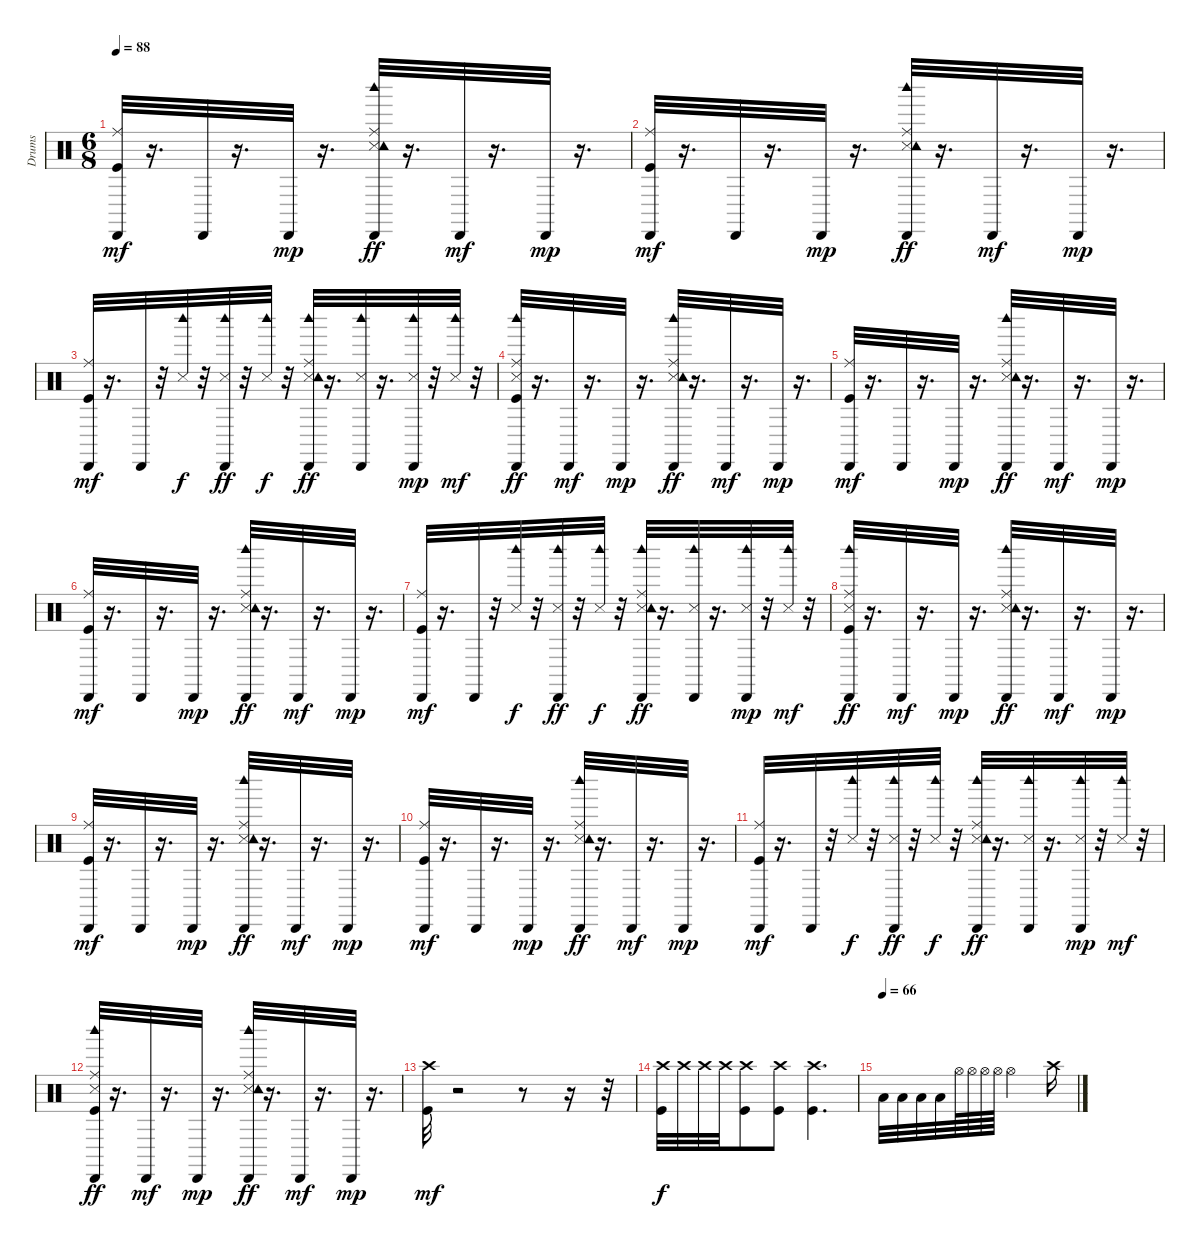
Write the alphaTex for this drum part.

\track ("Drums               " "Drums     ") {instrument percussion}
\staff {score}
\articulation defaults
\ts (6 8)
\tempo 88
\clef neutral
\ks c
("Kick (hit)" "Ride (middle)" "Cabasa (hit)").32{dy mf} r.16{d} "Cabasa (hit)".32 r.16{d} "Cabasa (hit)".32{dy mp} r.16{d} ("Snare (side stick) 3" "Ride (middle)" "Tambourine (hit)" "Cabasa (hit)" "Woodblock high (hit)").32{dy ff} r.16{d} "Cabasa (hit)".32{dy mf} r.16{d} "Cabasa (hit)".32{dy mp} r.16{d} |
("Kick (hit)" "Ride (middle)" "Cabasa (hit)").32{dy mf} r.16{d} "Cabasa (hit)".32 r.16{d} "Cabasa (hit)".32{dy mp} r.16{d} ("Snare (side stick) 3" "Ride (middle)" "Tambourine (hit)" "Cabasa (hit)" "Woodblock high (hit)").32{dy ff} r.16{d} "Cabasa (hit)".32{dy mf} r.16{d} "Cabasa (hit)".32{dy mp} r.16{d} |
("Kick (hit)" "Ride (middle)" "Cabasa (hit)").32{dy mf} r.16{d} "Cabasa (hit)".32 r.32 ("Snare (side stick) 3" "Woodblock high (hit)").32{dy f} r.32 ("Snare (side stick) 3" "Cabasa (hit)" "Woodblock high (hit)").32{dy ff} r.32 ("Snare (side stick) 3" "Woodblock high (hit)").32{dy f} r.32 ("Snare (side stick) 3" "Ride (middle)" "Tambourine (hit)" "Cabasa (hit)" "Woodblock high (hit)").32{dy ff} r.16{d} ("Snare (side stick) 3" "Cabasa (hit)" "Woodblock high (hit)").32 r.16{d} ("Snare (side stick) 3" "Cabasa (hit)" "Woodblock high (hit)").32{dy mp} r.32 ("Snare (side stick) 3" "Woodblock high (hit)").32{dy mf} r.32 |
("Kick (hit)" "Snare (side stick) 3" "Ride (middle)" "Cabasa (hit)" "Woodblock high (hit)").32{dy ff} r.16{d} "Cabasa (hit)".32{dy mf} r.16{d} "Cabasa (hit)".32{dy mp} r.16{d} ("Snare (side stick) 3" "Ride (middle)" "Tambourine (hit)" "Cabasa (hit)" "Woodblock high (hit)").32{dy ff} r.16{d} "Cabasa (hit)".32{dy mf} r.16{d} "Cabasa (hit)".32{dy mp} r.16{d} |
("Kick (hit)" "Ride (middle)" "Cabasa (hit)").32{dy mf} r.16{d} "Cabasa (hit)".32 r.16{d} "Cabasa (hit)".32{dy mp} r.16{d} ("Snare (side stick) 3" "Ride (middle)" "Tambourine (hit)" "Cabasa (hit)" "Woodblock high (hit)").32{dy ff} r.16{d} "Cabasa (hit)".32{dy mf} r.16{d} "Cabasa (hit)".32{dy mp} r.16{d} |
("Kick (hit)" "Ride (middle)" "Cabasa (hit)").32{dy mf} r.16{d} "Cabasa (hit)".32 r.16{d} "Cabasa (hit)".32{dy mp} r.16{d} ("Snare (side stick) 3" "Ride (middle)" "Tambourine (hit)" "Cabasa (hit)" "Woodblock high (hit)").32{dy ff} r.16{d} "Cabasa (hit)".32{dy mf} r.16{d} "Cabasa (hit)".32{dy mp} r.16{d} |
("Kick (hit)" "Ride (middle)" "Cabasa (hit)").32{dy mf} r.16{d} "Cabasa (hit)".32 r.32 ("Snare (side stick) 3" "Woodblock high (hit)").32{dy f} r.32 ("Snare (side stick) 3" "Cabasa (hit)" "Woodblock high (hit)").32{dy ff} r.32 ("Snare (side stick) 3" "Woodblock high (hit)").32{dy f} r.32 ("Snare (side stick) 3" "Ride (middle)" "Tambourine (hit)" "Cabasa (hit)" "Woodblock high (hit)").32{dy ff} r.16{d} ("Snare (side stick) 3" "Cabasa (hit)" "Woodblock high (hit)").32 r.16{d} ("Snare (side stick) 3" "Cabasa (hit)" "Woodblock high (hit)").32{dy mp} r.32 ("Snare (side stick) 3" "Woodblock high (hit)").32{dy mf} r.32 |
("Kick (hit)" "Snare (side stick) 3" "Ride (middle)" "Cabasa (hit)" "Woodblock high (hit)").32{dy ff} r.16{d} "Cabasa (hit)".32{dy mf} r.16{d} "Cabasa (hit)".32{dy mp} r.16{d} ("Snare (side stick) 3" "Ride (middle)" "Tambourine (hit)" "Cabasa (hit)" "Woodblock high (hit)").32{dy ff} r.16{d} "Cabasa (hit)".32{dy mf} r.16{d} "Cabasa (hit)".32{dy mp} r.16{d} |
("Kick (hit)" "Ride (middle)" "Cabasa (hit)").32{dy mf} r.16{d} "Cabasa (hit)".32 r.16{d} "Cabasa (hit)".32{dy mp} r.16{d} ("Snare (side stick) 3" "Ride (middle)" "Tambourine (hit)" "Cabasa (hit)" "Woodblock high (hit)").32{dy ff} r.16{d} "Cabasa (hit)".32{dy mf} r.16{d} "Cabasa (hit)".32{dy mp} r.16{d} |
("Kick (hit)" "Ride (middle)" "Cabasa (hit)").32{dy mf} r.16{d} "Cabasa (hit)".32 r.16{d} "Cabasa (hit)".32{dy mp} r.16{d} ("Snare (side stick) 3" "Ride (middle)" "Tambourine (hit)" "Cabasa (hit)" "Woodblock high (hit)").32{dy ff} r.16{d} "Cabasa (hit)".32{dy mf} r.16{d} "Cabasa (hit)".32{dy mp} r.16{d} |
("Kick (hit)" "Ride (middle)" "Cabasa (hit)").32{dy mf} r.16{d} "Cabasa (hit)".32 r.32 ("Snare (side stick) 3" "Woodblock high (hit)").32{dy f} r.32 ("Snare (side stick) 3" "Cabasa (hit)" "Woodblock high (hit)").32{dy ff} r.32 ("Snare (side stick) 3" "Woodblock high (hit)").32{dy f} r.32 ("Snare (side stick) 3" "Ride (middle)" "Tambourine (hit)" "Cabasa (hit)" "Woodblock high (hit)").32{dy ff} r.16{d} ("Snare (side stick) 3" "Cabasa (hit)" "Woodblock high (hit)").32 r.16{d} ("Snare (side stick) 3" "Cabasa (hit)" "Woodblock high (hit)").32{dy mp} r.32 ("Snare (side stick) 3" "Woodblock high (hit)").32{dy mf} r.32 |
("Kick (hit)" "Snare (side stick) 3" "Ride (middle)" "Cabasa (hit)" "Woodblock high (hit)").32{dy ff} r.16{d} "Cabasa (hit)".32{dy mf} r.16{d} "Cabasa (hit)".32{dy mp} r.16{d} ("Snare (side stick) 3" "Ride (middle)" "Tambourine (hit)" "Cabasa (hit)" "Woodblock high (hit)").32{dy ff} r.16{d} "Cabasa (hit)".32{dy mf} r.16{d} "Cabasa (hit)".32{dy mp} r.16{d} |
("Kick (hit)" "Crash high (hit)").32{dy mf} r.2 r.8 r.16 r.32 |
("Kick (hit)" "Crash high (hit)").32{dy f volume 0} "Crash high (hit)".32 "Crash high (hit)".32 "Crash high (hit)".32 ("Kick (hit)" "Crash high (hit)").8 ("Kick (hit)" "Crash high (hit)").8 ("Kick (hit)" "Crash high (hit)").4{d} |
\tempo (66)
"Low Tom (hit)".32 "Low Tom (hit)".32 "Low Tom (hit)".32 "Low Tom (hit)".32 "Hi-Hat (open)".64 "Hi-Hat (open)".64 "Hi-Hat (open)".64 "Hi-Hat (open)".64 "Hi-Hat (open)".2 "Crash high (hit)".16
